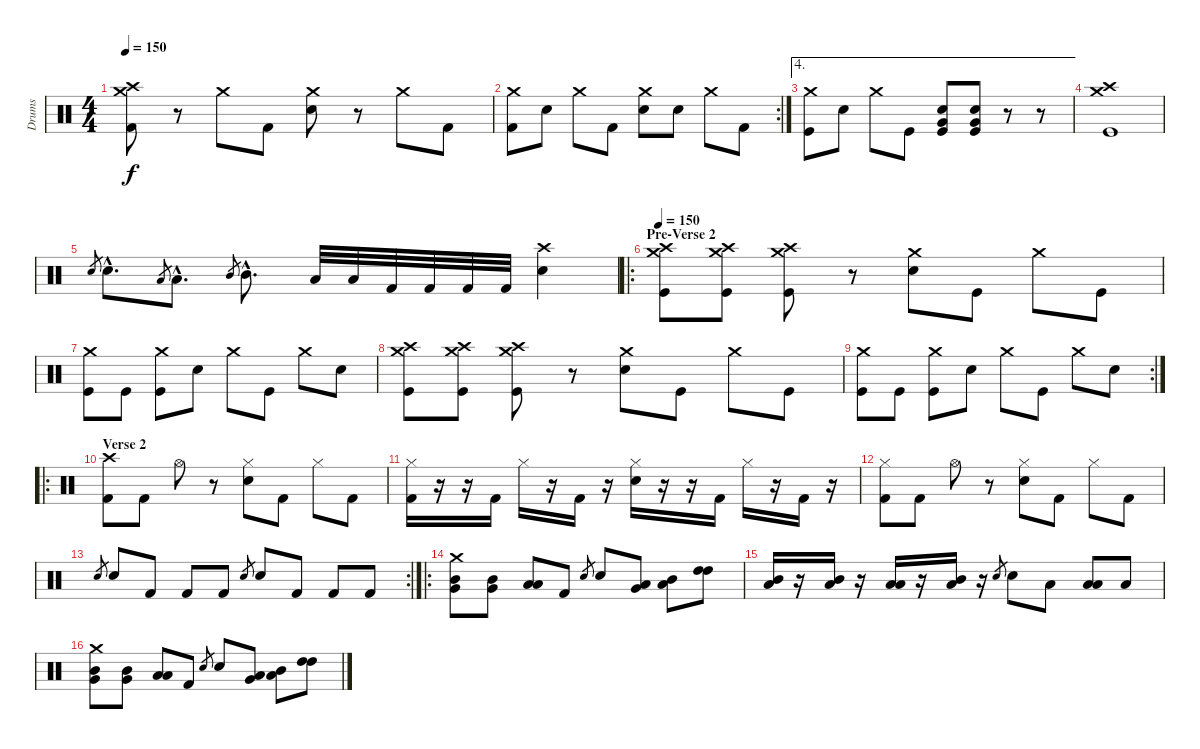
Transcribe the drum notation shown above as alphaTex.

\track ("Drums" "Drums") {instrument percussion}
\staff {score}
\articulation defaults
\ts (4 4)
\tempo 150
\clef neutral
\ks c
("Crash medium (hit)" "Crash high (hit)" "Kick (hit) 2").8{dy f} r.8 "Crash medium (hit)".8 "Kick (hit) 2".8 ("Crash medium (hit)" "Electric Snare (hit)").8 r.8 "Crash medium (hit)".8 "Kick (hit) 2".8 |
\rc 2
("Crash medium (hit)" "Kick (hit) 2").8 "Electric Snare (hit)".8 "Crash medium (hit)".8 "Kick (hit) 2".8 ("Crash medium (hit)" "Electric Snare (hit)").8 "Electric Snare (hit)".8 "Crash medium (hit)".8 "Kick (hit) 2".8 |
\ae 4
("Crash medium (hit)" "Kick (hit)").8 "Electric Snare (hit)".8 "Crash medium (hit)".8 "Kick (hit)".8 ("Electric Snare (hit)" "Very Low Tom (hit)" "Kick (hit)").8 ("Electric Snare (hit)" "Very Low Tom (hit)" "Kick (hit)").8 r.8 r.8 |
("Crash medium (hit)" "Crash high (hit)" "Kick (hit)").1 |
"Electric Snare (hit)".8{gr} "Electric Snare (hit)"{hac}.8{d} "Low Tom (hit)".8{gr} "Low Tom (hit)"{hac}.8{d} "Mid Tom (hit)".8{gr} "Mid Tom (hit)"{hac}.8{d} "Low Tom (hit)".32 "Low Tom (hit)".32 "Kick (hit) 2".32 "Kick (hit) 2".32 "Kick (hit) 2".32 "Kick (hit) 2".32 ("Electric Snare (hit)" "Crash high (hit)").4 |
\ro
\section ("" "Pre-Verse 2")
\tempo 150
("Crash medium (hit)" "Crash high (hit)" "Kick (hit)").8 ("Crash medium (hit)" "Crash high (hit)" "Kick (hit)").8 ("Crash medium (hit)" "Crash high (hit)" "Kick (hit)").8 r.8 ("Crash medium (hit)" "Electric Snare (hit)").8 "Kick (hit)".8 "Crash medium (hit)".8 "Kick (hit)".8 |
("Crash medium (hit)" "Kick (hit)").8 "Kick (hit)".8 ("Crash medium (hit)" "Kick (hit)").8 "Electric Snare (hit)".8 "Crash medium (hit)".8 "Kick (hit)".8 "Crash medium (hit)".8 "Electric Snare (hit)".8 |
("Crash medium (hit)" "Crash high (hit)" "Kick (hit)").8 ("Crash medium (hit)" "Crash high (hit)" "Kick (hit)").8 ("Crash medium (hit)" "Crash high (hit)" "Kick (hit)").8 r.8 ("Crash medium (hit)" "Electric Snare (hit)").8 "Kick (hit)".8 "Crash medium (hit)".8 "Kick (hit)".8 |
\rc 2
("Crash medium (hit)" "Kick (hit)").8 "Kick (hit)".8 ("Crash medium (hit)" "Kick (hit)").8 "Electric Snare (hit)".8 "Crash medium (hit)".8 "Kick (hit)".8 "Crash medium (hit)".8 "Electric Snare (hit)".8 |
\ro
\section ("" "Verse 2")
("Crash high (hit)" "Kick (hit) 2").8 "Kick (hit) 2".8 "Hi-Hat (open)".8 r.8 ("Hi-Hat (closed)" "Electric Snare (hit)").8 "Kick (hit) 2".8 "Hi-Hat (closed)".8 "Kick (hit) 2".8 |
("Hi-Hat (closed)" "Kick (hit) 2").16 r.16 r.16 "Kick (hit) 2".16 "Hi-Hat (closed)".16 r.16 "Kick (hit) 2".16 r.16 ("Hi-Hat (closed)" "Electric Snare (hit)").16 r.16 r.16 "Kick (hit) 2".16 "Hi-Hat (closed)".16 r.16 "Kick (hit) 2".16 r.16 |
("Hi-Hat (closed)" "Kick (hit) 2").8 "Kick (hit) 2".8 "Hi-Hat (open)".8 r.8 ("Hi-Hat (closed)" "Electric Snare (hit)").8 "Kick (hit) 2".8 "Hi-Hat (closed)".8 "Kick (hit) 2".8 |
\rc 2 "Electric Snare (hit)".8{gr} "Electric Snare (hit)".8 "Kick (hit) 2".8 "Kick (hit) 2".8 "Kick (hit) 2".8 "Electric Snare (hit)".8{gr} "Electric Snare (hit)".8 "Kick (hit) 2".8 "Kick (hit) 2".8 "Kick (hit) 2".8
|
\ro
("Crash medium (hit)" "Mid Tom (hit)" "Very Low Tom (hit)").8 ("Mid Tom (hit)" "Very Low Tom (hit)").8 ("Low Tom (hit)" "Low Tom (hit)").8 "Kick (hit) 2".8 "Electric Snare (hit)".8{gr} "Electric Snare (hit)".8 ("Low Floor Tom (hit)" "Very Low Tom (hit)").8 ("Mid Tom (hit)" "Low Tom (hit)").8 ("High Tom (hit)" "High Tom (hit)").8 |
("Low Floor Tom (hit)" "Mid Tom (hit)").16 r.16 ("Low Floor Tom (hit)" "Mid Tom (hit)").16 r.16 ("Low Floor Tom (hit)" "Low Tom (hit)").16 r.16 ("Low Floor Tom (hit)" "Mid Tom (hit)").16 r.16 "Electric Snare (hit)".8{gr} "Electric Snare (hit)".8 "Low Tom (hit)".8 ("Low Floor Tom (hit)" "Low Tom (hit)").8 "Low Tom (hit)".8 |
("Crash medium (hit)" "Mid Tom (hit)" "Very Low Tom (hit)").8 ("Mid Tom (hit)" "Very Low Tom (hit)").8 ("Low Tom (hit)" "Low Tom (hit)").8 "Kick (hit) 2".8 "Electric Snare (hit)".8{gr} "Electric Snare (hit)".8 ("Low Floor Tom (hit)" "Very Low Tom (hit)").8 ("Mid Tom (hit)" "Low Tom (hit)").8 ("High Tom (hit)" "High Tom (hit)").8
